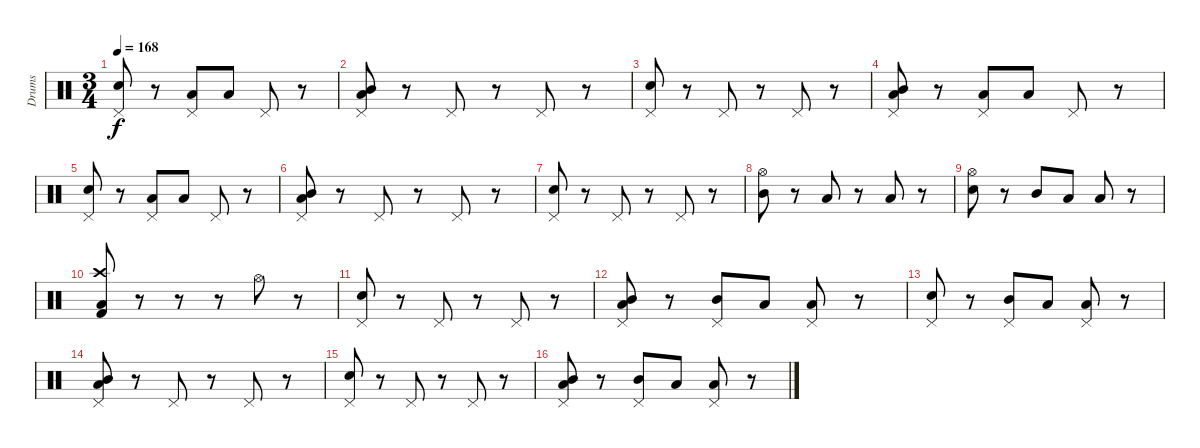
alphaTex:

\track ("Drums" "Drums") {instrument percussion}
\staff {score}
\articulation defaults
\ts (3 4)
\tempo 168
\clef neutral
\ks c
("Pedal Hi-Hat (hit)" "Electric Snare (hit)").8{dy f} r.8 ("Pedal Hi-Hat (hit)" "Low Tom (hit)").8 "Low Floor Tom (hit)".8 "Pedal Hi-Hat (hit)".8 r.8 |
("Pedal Hi-Hat (hit)" "Mid Tom (hit)" "Low Tom (hit)").8{bu 240} r.8 "Pedal Hi-Hat (hit)".8 r.8 "Pedal Hi-Hat (hit)".8 r.8 |
("Pedal Hi-Hat (hit)" "Electric Snare (hit)").8 r.8 "Pedal Hi-Hat (hit)".8 r.8 "Pedal Hi-Hat (hit)".8 r.8 |
("Pedal Hi-Hat (hit)" "Mid Tom (hit)" "Low Tom (hit)").8{bu 240} r.8 ("Pedal Hi-Hat (hit)" "Low Tom (hit)").8 "Low Floor Tom (hit)".8 "Pedal Hi-Hat (hit)".8 r.8 |
("Pedal Hi-Hat (hit)" "Electric Snare (hit)").8 r.8 ("Pedal Hi-Hat (hit)" "Low Tom (hit)").8 "Low Floor Tom (hit)".8 "Pedal Hi-Hat (hit)".8 r.8 |
("Pedal Hi-Hat (hit)" "Mid Tom (hit)" "Low Tom (hit)").8{bu 240} r.8 "Pedal Hi-Hat (hit)".8 r.8 "Pedal Hi-Hat (hit)".8 r.8 |
("Pedal Hi-Hat (hit)" "Electric Snare (hit)").8 r.8 "Pedal Hi-Hat (hit)".8 r.8 "Pedal Hi-Hat (hit)".8 r.8 |
("Hi-Hat (open)" "Mid Tom (hit)").8 r.8 "Low Tom (hit)".8 r.8 "Low Floor Tom (hit)".8 r.8 |
("Hi-Hat (open)" "Electric Snare (hit)").8 r.8 "Mid Tom (hit)".8 "Low Tom (hit)".8 "Low Floor Tom (hit)".8 r.8 |
("Crash high (hit)" "Low Floor Tom (hit)" "Kick (hit) 2").8{bu 240} r.8 r.8 r.8 "Hi-Hat (open)".8 r.8 |
("Pedal Hi-Hat (hit)" "Electric Snare (hit)").8 r.8 "Pedal Hi-Hat (hit)".8 r.8 "Pedal Hi-Hat (hit)".8 r.8 |
("Pedal Hi-Hat (hit)" "Mid Tom (hit)" "Low Tom (hit)").8{bu 240} r.8 ("Pedal Hi-Hat (hit)" "Mid Tom (hit)").8 "Low Tom (hit)".8 ("Pedal Hi-Hat (hit)" "Low Floor Tom (hit)").8 r.8 |
("Pedal Hi-Hat (hit)" "Electric Snare (hit)").8 r.8 ("Pedal Hi-Hat (hit)" "Mid Tom (hit)").8 "Low Tom (hit)".8 ("Pedal Hi-Hat (hit)" "Low Floor Tom (hit)").8 r.8 |
("Pedal Hi-Hat (hit)" "Mid Tom (hit)" "Low Tom (hit)").8{bu 240} r.8 "Pedal Hi-Hat (hit)".8 r.8 "Pedal Hi-Hat (hit)".8 r.8 |
("Pedal Hi-Hat (hit)" "Electric Snare (hit)").8 r.8 "Pedal Hi-Hat (hit)".8 r.8 "Pedal Hi-Hat (hit)".8 r.8 |
("Pedal Hi-Hat (hit)" "Mid Tom (hit)" "Low Tom (hit)").8{bu 240} r.8 ("Pedal Hi-Hat (hit)" "Mid Tom (hit)").8 "Low Tom (hit)".8 ("Pedal Hi-Hat (hit)" "Low Floor Tom (hit)").8 r.8
